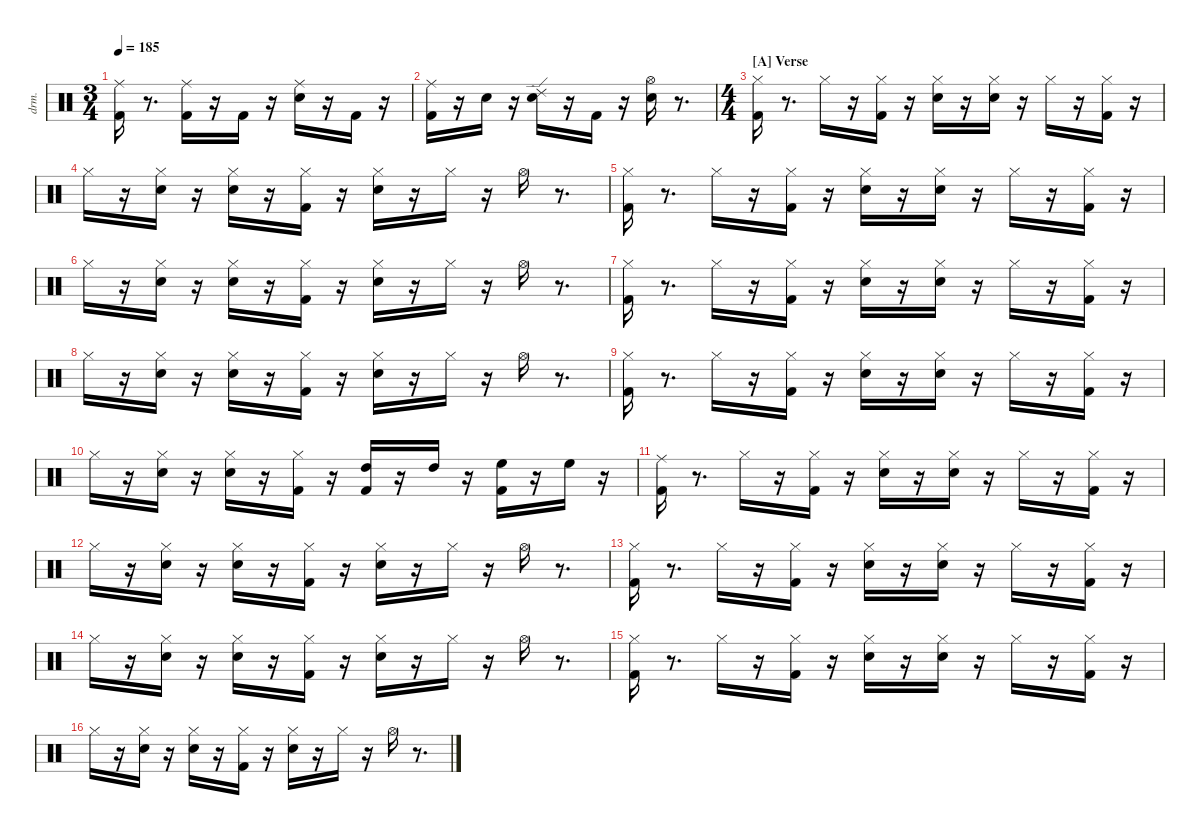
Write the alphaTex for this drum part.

\defaultSystemsLayout 4
\hideDynamics
\bracketExtendMode nobrackets
\otherSystemsTrackNameOrientation horizontal
\track ("drums" "drm.") {instrument percussion}
\staff {score}
\articulation defaults
\ts (3 4)
\tempo 185
\clef neutral
\ks aminor
("Kick (hit) 2" "Ride (middle)"{acc #}).16{dy fff beam Down} r.8{d beam Down} ("Kick (hit) 2" "Ride (middle)"{acc #}).16{dy mf beam Down} r.16{beam Down} "Kick (hit) 2".16{dy ff beam Up} r.16{beam Up} ("Snare (hit) 2" "Ride (middle)"{acc #}).16{beam Down} r.16{beam Down} "Kick (hit) 2".16{dy mf beam Up} r.16{beam Up} |
("Kick (hit) 2" "Ride (middle)"{acc #}).16{dy ff beam Down} r.16{beam Down} "Snare (hit) 2".16{beam Down} r.16{beam Down} ("Snare (hit) 2" "Ride (edge) 2").16{dy p beam Down} r.16{beam Down} "Kick (hit) 2".16{dy ff beam Up} r.16{beam Up} ("Snare (hit) 2" "Hi-Hat (open)"{acc #}).16{dy f beam Down} r.8{d beam Down} |
\ts (4 4)
\section ("A" "Verse")
("Kick (hit) 2" "Hi-Hat (closed)"{acc #}).16{dy ff beam Down} r.8{d beam Down} "Hi-Hat (closed)"{acc #}.16{dy f beam Down} r.16{beam Down} ("Kick (hit) 2" "Hi-Hat (closed)"{acc #}).16{dy ff beam Down} r.16{beam Down} ("Snare (hit) 2" "Hi-Hat (closed)"{acc #}).16{beam Down} r.16{beam Down} ("Snare (hit) 2" "Hi-Hat (closed)"{acc #}).16{dy ppp beam Down} r.16{beam Down} "Hi-Hat (closed)"{acc #}.16{dy mf beam Down} r.16{beam Down} ("Kick (hit) 2" "Hi-Hat (closed)"{acc #}).16{dy f beam Down} r.16{beam Down} |
"Hi-Hat (closed)"{acc #}.16{dy mp beam Down} r.16{beam Down} ("Snare (hit) 2" "Hi-Hat (closed)"{acc #}).16{dy f beam Down} r.16{beam Down} ("Snare (hit) 2" "Hi-Hat (closed)"{acc #}).16{dy ppp beam Down} r.16{beam Down} ("Kick (hit) 2" "Hi-Hat (closed)"{acc #}).16{dy ff beam Down} r.16{beam Down} ("Snare (hit) 2" "Hi-Hat (closed)"{acc #}).16{dy fff beam Down} r.16{beam Down} "Hi-Hat (closed)"{acc #}.16{dy ppp beam Down} r.16{beam Down} "Hi-Hat (open)"{acc #}.16{dy ff beam Down} r.8{d beam Down} |
("Kick (hit) 2" "Hi-Hat (closed)"{acc #}).16{beam Down} r.8{d beam Down} "Hi-Hat (closed)"{acc #}.16{dy f beam Down} r.16{beam Down} ("Kick (hit) 2" "Hi-Hat (closed)"{acc #}).16{dy ff beam Down} r.16{beam Down} ("Snare (hit) 2" "Hi-Hat (closed)"{acc #}).16{beam Down} r.16{beam Down} ("Snare (hit) 2" "Hi-Hat (closed)"{acc #}).16{dy ppp beam Down} r.16{beam Down} "Hi-Hat (closed)"{acc #}.16{dy mf beam Down} r.16{beam Down} ("Kick (hit) 2" "Hi-Hat (closed)"{acc #}).16{dy f beam Down} r.16{beam Down} |
"Hi-Hat (closed)"{acc #}.16{dy mp beam Down} r.16{beam Down} ("Snare (hit) 2" "Hi-Hat (closed)"{acc #}).16{dy f beam Down} r.16{beam Down} ("Snare (hit) 2" "Hi-Hat (closed)"{acc #}).16{dy ppp beam Down} r.16{beam Down} ("Kick (hit) 2" "Hi-Hat (closed)"{acc #}).16{dy ff beam Down} r.16{beam Down} ("Snare (hit) 2" "Hi-Hat (closed)"{acc #}).16{dy fff beam Down} r.16{beam Down} "Hi-Hat (closed)"{acc #}.16{dy ppp beam Down} r.16{beam Down} "Hi-Hat (open)"{acc #}.16{dy ff beam Down} r.8{d beam Down} |
("Kick (hit) 2" "Hi-Hat (closed)"{acc #}).16{beam Down} r.8{d beam Down} "Hi-Hat (closed)"{acc #}.16{dy f beam Down} r.16{beam Down} ("Kick (hit) 2" "Hi-Hat (closed)"{acc #}).16{dy ff beam Down} r.16{beam Down} ("Snare (hit) 2" "Hi-Hat (closed)"{acc #}).16{beam Down} r.16{beam Down} ("Snare (hit) 2" "Hi-Hat (closed)"{acc #}).16{dy ppp beam Down} r.16{beam Down} "Hi-Hat (closed)"{acc #}.16{dy mf beam Down} r.16{beam Down} ("Kick (hit) 2" "Hi-Hat (closed)"{acc #}).16{dy f beam Down} r.16{beam Down} |
"Hi-Hat (closed)"{acc #}.16{dy mp beam Down} r.16{beam Down} ("Snare (hit) 2" "Hi-Hat (closed)"{acc #}).16{dy f beam Down} r.16{beam Down} ("Snare (hit) 2" "Hi-Hat (closed)"{acc #}).16{dy ppp beam Down} r.16{beam Down} ("Kick (hit) 2" "Hi-Hat (closed)"{acc #}).16{dy ff beam Down} r.16{beam Down} ("Snare (hit) 2" "Hi-Hat (closed)"{acc #}).16{dy fff beam Down} r.16{beam Down} "Hi-Hat (closed)"{acc #}.16{dy ppp beam Down} r.16{beam Down} "Hi-Hat (open)"{acc #}.16{dy ff beam Down} r.8{d beam Down} |
("Kick (hit) 2" "Hi-Hat (closed)"{acc #}).16{beam Down} r.8{d beam Down} "Hi-Hat (closed)"{acc #}.16{dy f beam Down} r.16{beam Down} ("Kick (hit) 2" "Hi-Hat (closed)"{acc #}).16{dy ff beam Down} r.16{beam Down} ("Snare (hit) 2" "Hi-Hat (closed)"{acc #}).16{beam Down} r.16{beam Down} ("Snare (hit) 2" "Hi-Hat (closed)"{acc #}).16{dy ppp beam Down} r.16{beam Down} "Hi-Hat (closed)"{acc #}.16{dy mf beam Down} r.16{beam Down} ("Kick (hit) 2" "Hi-Hat (closed)"{acc #}).16{dy f beam Down} r.16{beam Down} |
"Hi-Hat (closed)"{acc #}.16{dy mp beam Down} r.16{beam Down} ("Snare (hit) 2" "Hi-Hat (closed)"{acc #}).16{dy f beam Down} r.16{beam Down} ("Snare (hit) 2" "Hi-Hat (closed)"{acc #}).16{dy pp beam Down} r.16{beam Down} ("Kick (hit) 2" "Hi-Hat (closed)"{acc #}).16{dy f beam Down} r.16{beam Down} ("Kick (hit) 2" "High Tom (hit)").16{dy fff beam Up} r.16{beam Up} "High Tom (hit)".16{dy mf beam Down} r.16{beam Down} ("Kick (hit) 2" "High Floor Tom (hit)").16{dy ff beam Down} r.16{beam Down} "High Floor Tom (hit)".16{dy mf beam Down} r.16{beam Down} |
("Kick (hit) 2" "Ride (middle)"{acc #}).16{dy ff beam Down} r.8{d beam Down} "Hi-Hat (closed)"{acc #}.16{dy f beam Down} r.16{beam Down} ("Kick (hit) 2" "Hi-Hat (closed)"{acc #}).16{dy ff beam Down} r.16{beam Down} ("Snare (hit) 2" "Hi-Hat (closed)"{acc #}).16{beam Down} r.16{beam Down} ("Snare (hit) 2" "Hi-Hat (closed)"{acc #}).16{dy ppp beam Down} r.16{beam Down} "Hi-Hat (closed)"{acc #}.16{dy mf beam Down} r.16{beam Down} ("Kick (hit) 2" "Hi-Hat (closed)"{acc #}).16{dy f beam Down} r.16{beam Down} |
"Hi-Hat (closed)"{acc #}.16{dy mp beam Down} r.16{beam Down} ("Snare (hit) 2" "Hi-Hat (closed)"{acc #}).16{dy f beam Down} r.16{beam Down} ("Snare (hit) 2" "Hi-Hat (closed)"{acc #}).16{dy pp beam Down} r.16{beam Down} ("Kick (hit) 2" "Hi-Hat (closed)"{acc #}).16{dy ff beam Down} r.16{beam Down} ("Snare (hit) 2" "Hi-Hat (closed)"{acc #}).16{dy fff beam Down} r.16{beam Down} "Hi-Hat (closed)"{acc #}.16{dy ppp beam Down} r.16{beam Down} "Hi-Hat (open)"{acc #}.16{dy ff beam Down} r.8{d beam Down} |
("Kick (hit) 2" "Hi-Hat (closed)"{acc #}).16{beam Down} r.8{d beam Down} "Hi-Hat (closed)"{acc #}.16{dy f beam Down} r.16{beam Down} ("Kick (hit) 2" "Hi-Hat (closed)"{acc #}).16{dy ff beam Down} r.16{beam Down} ("Snare (hit) 2" "Hi-Hat (closed)"{acc #}).16{beam Down} r.16{beam Down} ("Snare (hit) 2" "Hi-Hat (closed)"{acc #}).16{dy ppp beam Down} r.16{beam Down} "Hi-Hat (closed)"{acc #}.16{dy mf beam Down} r.16{beam Down} ("Kick (hit) 2" "Hi-Hat (closed)"{acc #}).16{dy f beam Down} r.16{beam Down} |
"Hi-Hat (closed)"{acc #}.16{dy mp beam Down} r.16{beam Down} ("Snare (hit) 2" "Hi-Hat (closed)"{acc #}).16{dy f beam Down} r.16{beam Down} ("Snare (hit) 2" "Hi-Hat (closed)"{acc #}).16{dy pp beam Down} r.16{beam Down} ("Kick (hit) 2" "Hi-Hat (closed)"{acc #}).16{dy ff beam Down} r.16{beam Down} ("Snare (hit) 2" "Hi-Hat (closed)"{acc #}).16{dy fff beam Down} r.16{beam Down} "Hi-Hat (closed)"{acc #}.16{dy ppp beam Down} r.16{beam Down} "Hi-Hat (open)"{acc #}.16{dy ff beam Down} r.8{d beam Down} |
("Kick (hit) 2" "Hi-Hat (closed)"{acc #}).16{beam Down} r.8{d beam Down} "Hi-Hat (closed)"{acc #}.16{dy f beam Down} r.16{beam Down} ("Kick (hit) 2" "Hi-Hat (closed)"{acc #}).16{dy ff beam Down} r.16{beam Down} ("Snare (hit) 2" "Hi-Hat (closed)"{acc #}).16{beam Down} r.16{beam Down} ("Snare (hit) 2" "Hi-Hat (closed)"{acc #}).16{dy ppp beam Down} r.16{beam Down} "Hi-Hat (closed)"{acc #}.16{dy mf beam Down} r.16{beam Down} ("Kick (hit) 2" "Hi-Hat (closed)"{acc #}).16{dy f beam Down} r.16{beam Down} |
"Hi-Hat (closed)"{acc #}.16{dy mp beam Down} r.16{beam Down} ("Snare (hit) 2" "Hi-Hat (closed)"{acc #}).16{dy f beam Down} r.16{beam Down} ("Snare (hit) 2" "Hi-Hat (closed)"{acc #}).16{dy pp beam Down} r.16{beam Down} ("Kick (hit) 2" "Hi-Hat (closed)"{acc #}).16{dy ff beam Down} r.16{beam Down} ("Snare (hit) 2" "Hi-Hat (closed)"{acc #}).16{dy fff beam Down} r.16{beam Down} "Hi-Hat (closed)"{acc #}.16{dy ppp beam Down} r.16{beam Down} "Hi-Hat (open)"{acc #}.16{dy ff beam Down} r.8{d beam Down}
